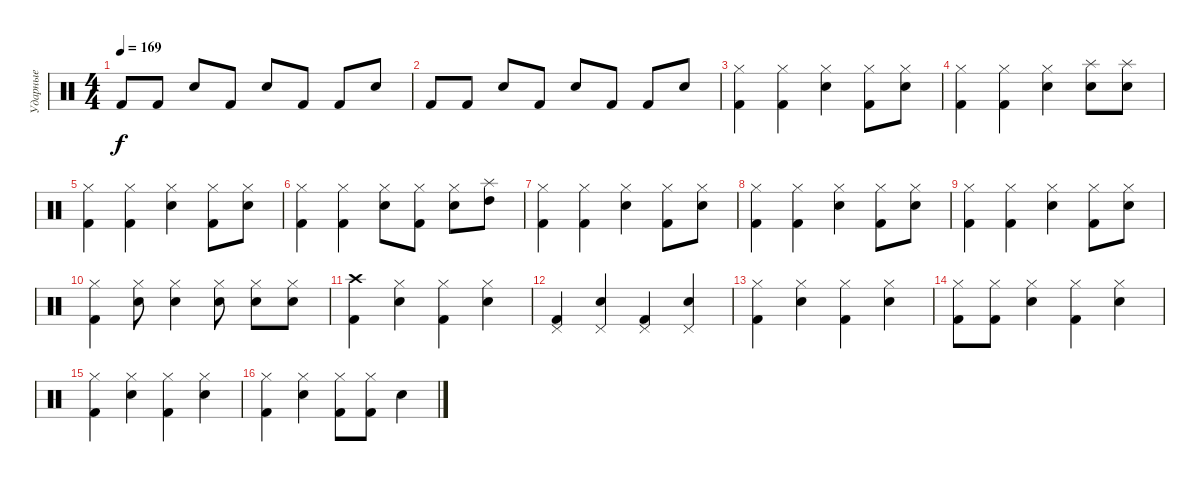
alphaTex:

\track ("Ударные" "Ударные") {instrument percussion}
\staff {score}
\articulation defaults
\ts (4 4)
\tempo 169
\clef neutral
\ks c "Kick (hit) 2".8{dy f} "Kick (hit) 2".8 "Electric Snare (hit)".8 "Kick (hit) 2".8 "Electric Snare (hit)".8 "Kick (hit) 2".8 "Kick (hit) 2".8 "Electric Snare (hit)".8
|
"Kick (hit) 2".8 "Kick (hit) 2".8 "Electric Snare (hit)".8 "Kick (hit) 2".8 "Electric Snare (hit)".8 "Kick (hit) 2".8 "Kick (hit) 2".8 "Electric Snare (hit)".8 |
("Kick (hit) 2" "Hi-Hat (closed)").4 ("Kick (hit) 2" "Hi-Hat (closed)").4 ("Electric Snare (hit)" "Hi-Hat (closed)").4 ("Kick (hit) 2" "Hi-Hat (closed)").8 ("Electric Snare (hit)" "Hi-Hat (closed)").8 |
("Kick (hit) 2" "Hi-Hat (closed)").4 ("Kick (hit) 2" "Hi-Hat (closed)").4 ("Electric Snare (hit)" "Hi-Hat (closed)").4 ("Electric Snare (hit)" "Splash (hit)").8 ("Electric Snare (hit)" "Splash (hit)").8 |
("Kick (hit) 2" "Hi-Hat (closed)").4 ("Kick (hit) 2" "Hi-Hat (closed)").4 ("Electric Snare (hit)" "Hi-Hat (closed)").4 ("Kick (hit) 2" "Hi-Hat (closed)").8 ("Electric Snare (hit)" "Hi-Hat (closed)").8 |
("Kick (hit) 2" "Hi-Hat (closed)").4 ("Kick (hit) 2" "Hi-Hat (closed)").4 ("Electric Snare (hit)" "Hi-Hat (closed)").8 ("Kick (hit) 2" "Hi-Hat (closed)").8 ("Electric Snare (hit)" "Hi-Hat (closed)").8 ("High Tom (hit)" "Splash (hit)").8 |
("Kick (hit) 2" "Hi-Hat (closed)").4 ("Kick (hit) 2" "Hi-Hat (closed)").4 ("Electric Snare (hit)" "Hi-Hat (closed)").4 ("Kick (hit) 2" "Hi-Hat (closed)").8 ("Electric Snare (hit)" "Hi-Hat (closed)").8 |
("Kick (hit) 2" "Hi-Hat (closed)").4 ("Kick (hit) 2" "Hi-Hat (closed)").4 ("Electric Snare (hit)" "Hi-Hat (closed)").4 ("Kick (hit) 2" "Hi-Hat (closed)").8 ("Electric Snare (hit)" "Hi-Hat (closed)").8 |
("Kick (hit) 2" "Hi-Hat (closed)").4 ("Kick (hit) 2" "Hi-Hat (closed)").4 ("Electric Snare (hit)" "Hi-Hat (closed)").4 ("Kick (hit) 2" "Hi-Hat (closed)").8 ("Electric Snare (hit)" "Hi-Hat (closed)").8 |
("Kick (hit) 2" "Hi-Hat (closed)").4 ("Electric Snare (hit)" "Hi-Hat (closed)").8 ("Electric Snare (hit)" "Hi-Hat (closed)").4 ("Electric Snare (hit)" "Hi-Hat (closed)").8 ("Electric Snare (hit)" "Hi-Hat (closed)").8 ("Electric Snare (hit)" "Hi-Hat (closed)").8 |
("Kick (hit) 2" "Crash high (hit)").4 ("Electric Snare (hit)" "Hi-Hat (closed)").4 ("Kick (hit) 2" "Hi-Hat (closed)").4 ("Electric Snare (hit)" "Hi-Hat (closed)").4 |
("Kick (hit) 2" "Pedal Hi-Hat (hit)").4 ("Electric Snare (hit)" "Pedal Hi-Hat (hit)").4 ("Kick (hit) 2" "Pedal Hi-Hat (hit)").4 ("Electric Snare (hit)" "Pedal Hi-Hat (hit)").4 |
("Kick (hit) 2" "Hi-Hat (closed)").4 ("Electric Snare (hit)" "Hi-Hat (closed)").4 ("Kick (hit) 2" "Hi-Hat (closed)").4 ("Electric Snare (hit)" "Hi-Hat (closed)").4 |
("Kick (hit) 2" "Hi-Hat (closed)").8 ("Kick (hit) 2" "Hi-Hat (closed)").8 ("Electric Snare (hit)" "Hi-Hat (closed)").4 ("Kick (hit) 2" "Hi-Hat (closed)").4 ("Electric Snare (hit)" "Hi-Hat (closed)").4 |
("Kick (hit) 2" "Hi-Hat (closed)").4 ("Electric Snare (hit)" "Hi-Hat (closed)").4 ("Kick (hit) 2" "Hi-Hat (closed)").4 ("Electric Snare (hit)" "Hi-Hat (closed)").4 |
("Kick (hit) 2" "Hi-Hat (closed)").4 ("Electric Snare (hit)" "Hi-Hat (closed)").4 ("Kick (hit) 2" "Hi-Hat (closed)").8 ("Kick (hit) 2" "Hi-Hat (closed)").8 "Electric Snare (hit)".4
